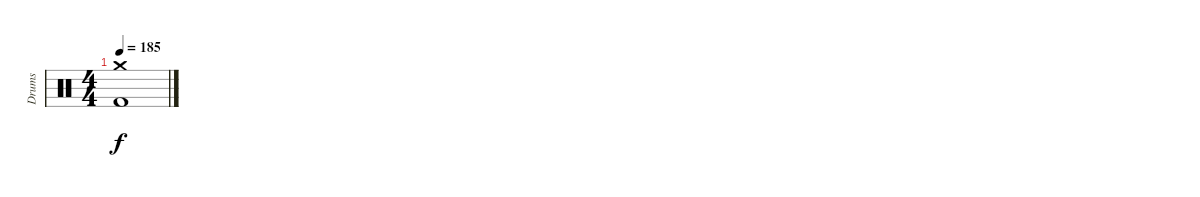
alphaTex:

\track ("Drums" "Drums") {instrument percussion}
\staff {score}
\articulation defaults
\ts (4 4)
\tempo 185
\clef neutral
\ks c
("Crash medium (hit)" "Kick (hit) 2").1{dy f}
